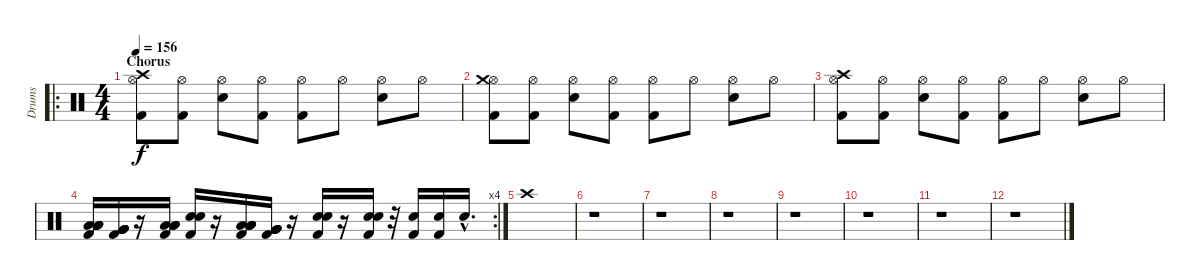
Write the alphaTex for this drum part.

\track ("Drums" "Drums") {instrument percussion}
\staff {score}
\articulation defaults
\ro
\ts (4 4)
\section ("" "Chorus")
\tempo 156
\clef neutral
\ks c
("Hi-Hat (open)" "Kick (hit) 2" "Crash high (hit)").8{dy f} ("Hi-Hat (open)" "Kick (hit) 2").8 ("Hi-Hat (open)" "Snare (hit) 2").8 ("Hi-Hat (open)" "Kick (hit) 2").8 ("Hi-Hat (open)" "Kick (hit) 2").8 "Hi-Hat (open)".8 ("Hi-Hat (open)" "Snare (hit) 2").8 "Hi-Hat (open)".8 |
("Hi-Hat (open)" "Kick (hit) 2" "Crash medium (hit)").8 ("Hi-Hat (open)" "Kick (hit) 2").8 ("Hi-Hat (open)" "Snare (hit) 2").8 ("Hi-Hat (open)" "Kick (hit) 2").8 ("Hi-Hat (open)" "Kick (hit) 2").8 "Hi-Hat (open)".8 ("Hi-Hat (open)" "Snare (hit) 2").8 "Hi-Hat (open)".8 |
("Hi-Hat (open)" "Kick (hit) 2" "Crash high (hit)").8 ("Hi-Hat (open)" "Kick (hit) 2").8 ("Hi-Hat (open)" "Snare (hit) 2").8 ("Hi-Hat (open)" "Kick (hit) 2").8 ("Hi-Hat (open)" "Kick (hit) 2").8 "Hi-Hat (open)".8 ("Hi-Hat (open)" "Snare (hit) 2").8 "Hi-Hat (open)".8 |
\rc 4
("Low Tom (hit)" "Low Tom (hit)" "Low Tom (hit)" "Low Tom (hit)" "Kick (hit) 2").16 ("Very Low Tom (hit)" "Very Low Tom (hit)" "Very Low Tom (hit)" "Very Low Tom (hit)" "Kick (hit) 2").16 r.16 ("Low Tom (hit)" "Low Tom (hit)" "Low Tom (hit)" "Low Tom (hit)" "Kick (hit) 2").16 ("Snare (hit) 2" "Snare (hit) 2" "Kick (hit) 2").16 r.16 ("Low Tom (hit)" "Low Tom (hit)" "Low Tom (hit)" "Low Tom (hit)" "Kick (hit) 2").16 ("Very Low Tom (hit)" "Very Low Tom (hit)" "Very Low Tom (hit)" "Very Low Tom (hit)" "Kick (hit) 2").16 r.16 ("Snare (hit) 2" "Snare (hit) 2" "Kick (hit) 2").16 r.16 ("Snare (hit) 2" "Snare (hit) 2" "Kick (hit) 2").16 r.32 ("Snare (hit) 2" "Kick (hit) 2").16 ("Snare (hit) 2" "Kick (hit) 2").16 "Snare (hit) 2"{hac}.16{d} |
"Crash high (hit)".1 |
r.1 |
r.1 |
r.1 |
r.1{volume 0} |
r.1 |
r.1 |
r.1
